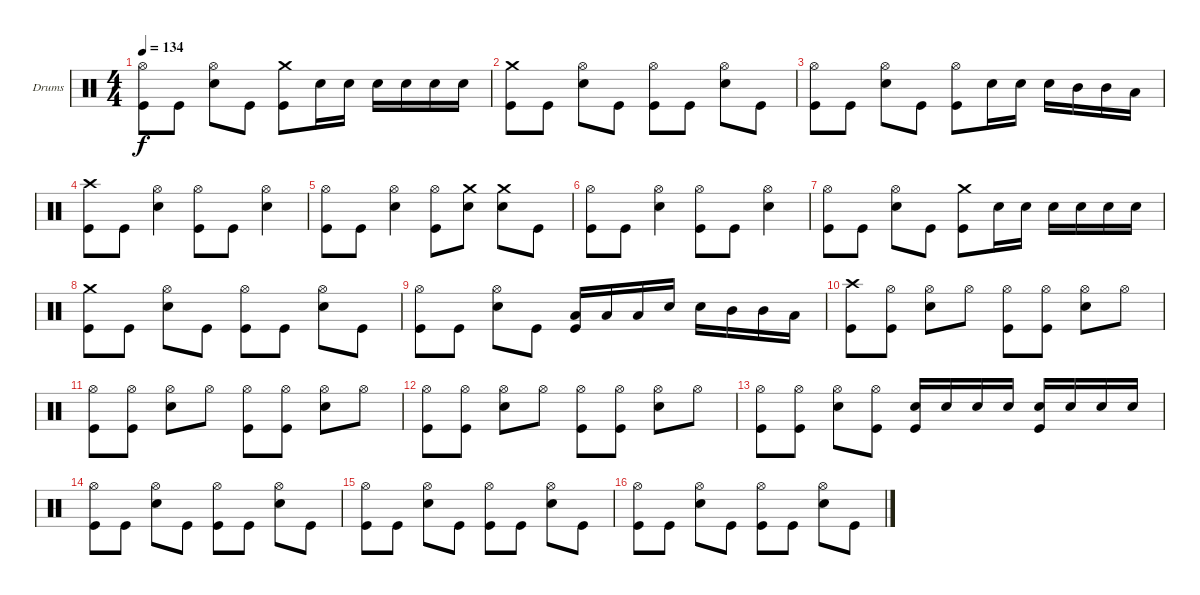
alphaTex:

\defaultSystemsLayout 4
\bracketExtendMode groupsimilarinstruments
\firstSystemTrackNameOrientation horizontal
\otherSystemsTrackNameOrientation horizontal
\track ("Drumkit" "Drums") {instrument percussion}
\staff {score}
\articulation defaults
\ts (4 4)
\tempo 134
\clef neutral
\scale
0.333333
\ks c
("Hi-Hat (open)" "Kick (hit)").8{dy f} "Kick (hit)".8 ("Hi-Hat (open)" "Snare (hit) 2").8 "Kick (hit)".8 ("Crash medium (hit)" "Kick (hit)").8 "Snare (hit) 2".16 "Snare (hit) 2".16 "Snare (hit) 2".16 "Snare (hit) 2".16 "Snare (hit) 2".16 "Snare (hit) 2".16 |
\scale
0.333333 ("Crash medium (hit)" "Kick (hit)").8 "Kick (hit)".8 ("Hi-Hat (open)" "Snare (hit) 2").8 "Kick (hit)".8 ("Hi-Hat (open)" "Kick (hit)").8 "Kick (hit)".8 ("Hi-Hat (open)" "Snare (hit) 2").8 "Kick (hit)".8 |
\scale
0.333333 ("Hi-Hat (open)" "Kick (hit)").8 "Kick (hit)".8 ("Hi-Hat (open)" "Snare (hit) 2").8 "Kick (hit)".8 ("Hi-Hat (open)" "Kick (hit)").8 "Snare (hit) 2".16 "Snare (hit) 2".16 "Snare (hit) 2".16 "Mid Tom (hit)".16 "Mid Tom (hit)".16 "Low Tom (hit)".16 |
\scale
0.333333 ("Crash high (hit)" "Kick (hit)").8 "Kick (hit)".8 ("Hi-Hat (open)" "Snare (hit) 2").4 ("Hi-Hat (open)" "Kick (hit)").8 "Kick (hit)".8 ("Hi-Hat (open)" "Snare (hit) 2").4 |
\scale
0.333333 ("Hi-Hat (open)" "Kick (hit)").8 "Kick (hit)".8 ("Hi-Hat (open)" "Snare (hit) 2").4 ("Hi-Hat (open)" "Kick (hit)").8 ("Crash medium (hit)" "Snare (hit) 2").8 ("Crash medium (hit)" "Snare (hit) 2").8 "Kick (hit)".8 |
\scale
0.333333 ("Hi-Hat (open)" "Kick (hit)").8 "Kick (hit)".8 ("Hi-Hat (open)" "Snare (hit) 2").4 ("Hi-Hat (open)" "Kick (hit)").8 "Kick (hit)".8 ("Hi-Hat (open)" "Snare (hit) 2").4 |
\scale
0.333333 ("Hi-Hat (open)" "Kick (hit)").8 "Kick (hit)".8 ("Hi-Hat (open)" "Snare (hit) 2").8 "Kick (hit)".8 ("Crash medium (hit)" "Kick (hit)").8 "Snare (hit) 2".16 "Snare (hit) 2".16 "Snare (hit) 2".16 "Snare (hit) 2".16 "Snare (hit) 2".16 "Snare (hit) 2".16 |
\scale
0.333333 ("Crash medium (hit)" "Kick (hit)").8 "Kick (hit)".8 ("Hi-Hat (open)" "Snare (hit) 2").8 "Kick (hit)".8 ("Hi-Hat (open)" "Kick (hit)").8 "Kick (hit)".8 ("Hi-Hat (open)" "Snare (hit) 2").8 "Kick (hit)".8 |
\scale
0.333333 ("Hi-Hat (open)" "Kick (hit)").8 "Kick (hit)".8 ("Hi-Hat (open)" "Snare (hit) 2").8 "Kick (hit)".8 ("Low Tom (hit)" "Kick (hit)").16 "Low Tom (hit)".16 "Low Tom (hit)".16 "Snare (hit) 2".16 "Snare (hit) 2".16 "Mid Tom (hit)".16 "Mid Tom (hit)".16 "Low Tom (hit)".16 |
\scale
0.333333 ("Crash high (hit)" "Kick (hit)").8 ("Hi-Hat (open)" "Kick (hit)").8 ("Hi-Hat (open)" "Snare (hit) 2").8 "Hi-Hat (open)".8 ("Hi-Hat (open)" "Kick (hit)").8 ("Hi-Hat (open)" "Kick (hit)").8 ("Hi-Hat (open)" "Snare (hit) 2").8 "Hi-Hat (open)".8 |
\scale
0.333333 ("Hi-Hat (open)" "Kick (hit)").8 ("Hi-Hat (open)" "Kick (hit)").8 ("Hi-Hat (open)" "Snare (hit) 2").8 "Hi-Hat (open)".8 ("Hi-Hat (open)" "Kick (hit)").8 ("Hi-Hat (open)" "Kick (hit)").8 ("Hi-Hat (open)" "Snare (hit) 2").8 "Hi-Hat (open)".8 |
\scale
0.333333 ("Hi-Hat (open)" "Kick (hit)").8 ("Hi-Hat (open)" "Kick (hit)").8 ("Hi-Hat (open)" "Snare (hit) 2").8 "Hi-Hat (open)".8 ("Hi-Hat (open)" "Kick (hit)").8 ("Hi-Hat (open)" "Kick (hit)").8 ("Hi-Hat (open)" "Snare (hit) 2").8 "Hi-Hat (open)".8 |
\scale
0.333333 ("Hi-Hat (open)" "Kick (hit)").8 ("Hi-Hat (open)" "Kick (hit)").8 ("Hi-Hat (open)" "Snare (hit) 2").8 ("Hi-Hat (open)" "Kick (hit)").8 ("Snare (hit) 2" "Kick (hit)").16 "Snare (hit) 2".16 "Snare (hit) 2".16 "Snare (hit) 2".16 ("Snare (hit) 2" "Kick (hit)").16 "Snare (hit) 2".16 "Snare (hit) 2".16 "Snare (hit) 2".16 |
\scale
0.333333 ("Hi-Hat (open)" "Kick (hit)").8 "Kick (hit)".8 ("Hi-Hat (open)" "Snare (hit) 2").8 "Kick (hit)".8 ("Hi-Hat (open)" "Kick (hit)").8 "Kick (hit)".8 ("Hi-Hat (open)" "Snare (hit) 2").8 "Kick (hit)".8 |
\scale
0.333333 ("Hi-Hat (open)" "Kick (hit)").8 "Kick (hit)".8 ("Hi-Hat (open)" "Snare (hit) 2").8 "Kick (hit)".8 ("Hi-Hat (open)" "Kick (hit)").8 "Kick (hit)".8 ("Hi-Hat (open)" "Snare (hit) 2").8 "Kick (hit)".8 |
\scale
0.333333 ("Hi-Hat (open)" "Kick (hit)").8 "Kick (hit)".8 ("Hi-Hat (open)" "Snare (hit) 2").8 "Kick (hit)".8 ("Hi-Hat (open)" "Kick (hit)").8 "Kick (hit)".8 ("Hi-Hat (open)" "Snare (hit) 2").8 "Kick (hit)".8
